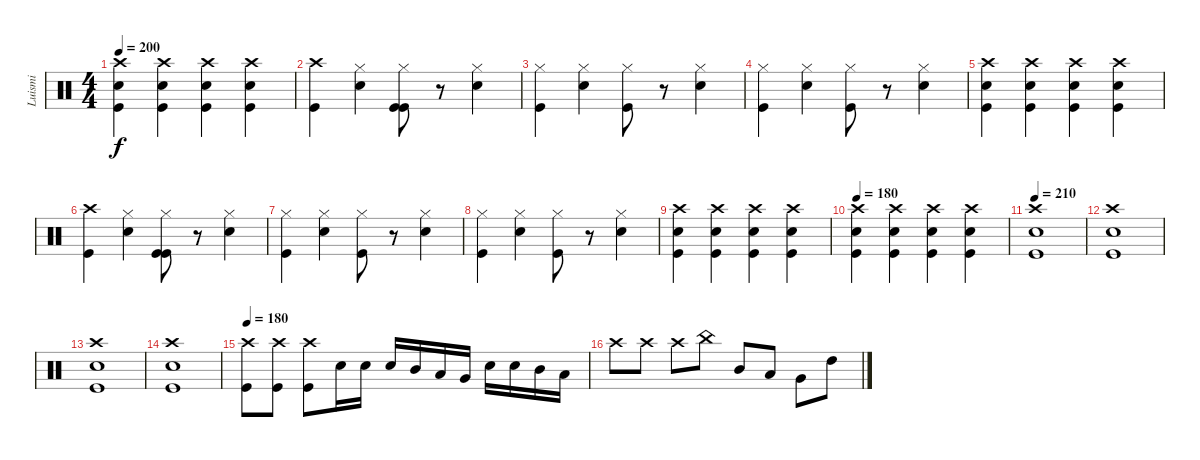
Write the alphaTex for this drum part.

\track ("Luismi" "Luismi") {instrument percussion}
\staff {score}
\articulation defaults
\ts (4 4)
\tempo 200
\clef neutral
\ks c
("Kick (hit)" "Snare (hit) 2" "Crash high (hit)").4{dy f} ("Snare (hit) 2" "Kick (hit)" "Crash high (hit)").4 ("Snare (hit) 2" "Kick (hit)" "Crash high (hit)").4 ("Snare (hit) 2" "Kick (hit)" "Crash high (hit)").4 |
("Crash high (hit)" "Kick (hit)").4 ("Snare (hit) 2" "Hi-Hat (closed)").4 ("Kick (hit)" "Kick (hit)" "Hi-Hat (closed)").8 r.8 ("Snare (hit) 2" "Hi-Hat (closed)").4 |
("Kick (hit)" "Hi-Hat (closed)").4 ("Snare (hit) 2" "Hi-Hat (closed)").4 ("Kick (hit)" "Hi-Hat (closed)").8 r.8 ("Snare (hit) 2" "Hi-Hat (closed)").4 |
("Kick (hit)" "Hi-Hat (closed)").4 ("Snare (hit) 2" "Hi-Hat (closed)").4 ("Kick (hit)" "Hi-Hat (closed)").8 r.8 ("Snare (hit) 2" "Hi-Hat (closed)").4 |
("Kick (hit)" "Snare (hit) 2" "Crash high (hit)").4 ("Snare (hit) 2" "Kick (hit)" "Crash high (hit)").4 ("Snare (hit) 2" "Kick (hit)" "Crash high (hit)").4 ("Snare (hit) 2" "Kick (hit)" "Crash high (hit)").4 |
("Crash high (hit)" "Kick (hit)").4 ("Snare (hit) 2" "Hi-Hat (closed)").4 ("Kick (hit)" "Kick (hit)" "Hi-Hat (closed)").8 r.8 ("Snare (hit) 2" "Hi-Hat (closed)").4 |
("Kick (hit)" "Hi-Hat (closed)").4 ("Snare (hit) 2" "Hi-Hat (closed)").4 ("Kick (hit)" "Hi-Hat (closed)").8 r.8 ("Snare (hit) 2" "Hi-Hat (closed)").4 |
("Kick (hit)" "Hi-Hat (closed)").4 ("Snare (hit) 2" "Hi-Hat (closed)").4 ("Kick (hit)" "Hi-Hat (closed)").8 r.8 ("Snare (hit) 2" "Hi-Hat (closed)").4 |
("Kick (hit)" "Snare (hit) 2" "Crash high (hit)").4 ("Snare (hit) 2" "Kick (hit)" "Crash high (hit)").4 ("Snare (hit) 2" "Kick (hit)" "Crash high (hit)").4 ("Snare (hit) 2" "Kick (hit)" "Crash high (hit)").4 |
\tempo 180
("Kick (hit)" "Snare (hit) 2" "Crash high (hit)").4 ("Snare (hit) 2" "Kick (hit)" "Crash high (hit)").4 ("Snare (hit) 2" "Kick (hit)" "Crash high (hit)").4 ("Snare (hit) 2" "Kick (hit)" "Crash high (hit)").4 |
\tempo 210
("Kick (hit)" "Snare (hit) 2" "Crash high (hit)").1 |
("Kick (hit)" "Snare (hit) 2" "Crash high (hit)").1 |
("Kick (hit)" "Snare (hit) 2" "Crash high (hit)").1 |
("Kick (hit)" "Snare (hit) 2" "Crash high (hit)").1 |
\tempo 180
("Kick (hit)" "Crash high (hit)").8 ("Kick (hit)" "Crash high (hit)").8 ("Kick (hit)" "Crash high (hit)").8 "Snare (hit) 2".16 "Snare (hit) 2".16 "Snare (hit) 2".16 "Mid Tom (hit)".16 "Low Tom (hit)".16 "Very Low Tom (hit)".16 "Snare (hit) 2".16 "Snare (hit) 2".16 "Mid Tom (hit)".16 "Low Tom (hit)".16 |
"Crash high (hit)".8 "Crash high (hit)".8 "Crash high (hit)".8 "China (hit)".8 "Mid Tom (hit)".8 "Low Tom (hit)".8 "Very Low Tom (hit)".8 "High Tom (hit)".8
